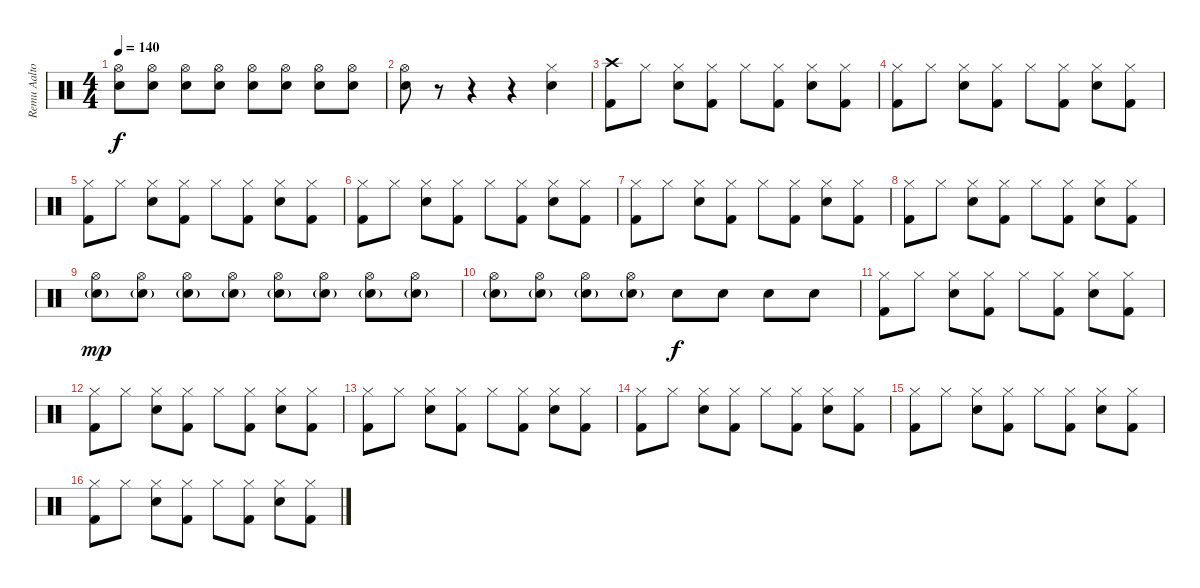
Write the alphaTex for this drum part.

\track ("Remu Aaltonen" "Remu Aalto") {instrument percussion}
\staff {score}
\articulation defaults
\ts (4 4)
\tempo 140
\clef neutral
\ks c
("Hi-Hat (open)" "Snare (hit) 2").8{dy f volume 5} ("Hi-Hat (open)" "Snare (hit) 2").8{volume 13} ("Hi-Hat (open)" "Snare (hit) 2").8 ("Hi-Hat (open)" "Snare (hit) 2").8 ("Hi-Hat (open)" "Snare (hit) 2").8 ("Hi-Hat (open)" "Snare (hit) 2").8 ("Hi-Hat (open)" "Snare (hit) 2").8 ("Hi-Hat (open)" "Snare (hit) 2").8 |
("Hi-Hat (open)" "Snare (hit) 2").8 r.8 r.4 r.4 ("Hi-Hat (closed)" "Snare (hit) 2").4 |
("Crash high (hit)" "Kick (hit) 2").8 "Hi-Hat (closed)".8 ("Hi-Hat (closed)" "Snare (hit) 2").8 ("Hi-Hat (closed)" "Kick (hit) 2").8 "Hi-Hat (closed)".8 ("Hi-Hat (closed)" "Kick (hit) 2").8 ("Hi-Hat (closed)" "Snare (hit) 2").8 ("Hi-Hat (closed)" "Kick (hit) 2").8 |
("Hi-Hat (closed)" "Kick (hit) 2").8 "Hi-Hat (closed)".8 ("Hi-Hat (closed)" "Snare (hit) 2").8 ("Hi-Hat (closed)" "Kick (hit) 2").8 "Hi-Hat (closed)".8 ("Hi-Hat (closed)" "Kick (hit) 2").8 ("Hi-Hat (closed)" "Snare (hit) 2").8 ("Hi-Hat (closed)" "Kick (hit) 2").8 |
("Hi-Hat (closed)" "Kick (hit) 2").8 "Hi-Hat (closed)".8 ("Hi-Hat (closed)" "Snare (hit) 2").8 ("Hi-Hat (closed)" "Kick (hit) 2").8 "Hi-Hat (closed)".8 ("Hi-Hat (closed)" "Kick (hit) 2").8 ("Hi-Hat (closed)" "Snare (hit) 2").8 ("Hi-Hat (closed)" "Kick (hit) 2").8 |
("Hi-Hat (closed)" "Kick (hit) 2").8 "Hi-Hat (closed)".8 ("Hi-Hat (closed)" "Snare (hit) 2").8 ("Hi-Hat (closed)" "Kick (hit) 2").8 "Hi-Hat (closed)".8 ("Hi-Hat (closed)" "Kick (hit) 2").8 ("Hi-Hat (closed)" "Snare (hit) 2").8 ("Hi-Hat (closed)" "Kick (hit) 2").8 |
("Hi-Hat (closed)" "Kick (hit) 2").8 "Hi-Hat (closed)".8 ("Hi-Hat (closed)" "Snare (hit) 2").8 ("Hi-Hat (closed)" "Kick (hit) 2").8 "Hi-Hat (closed)".8 ("Hi-Hat (closed)" "Kick (hit) 2").8 ("Hi-Hat (closed)" "Snare (hit) 2").8 ("Hi-Hat (closed)" "Kick (hit) 2").8 |
("Hi-Hat (closed)" "Kick (hit) 2").8 "Hi-Hat (closed)".8 ("Hi-Hat (closed)" "Snare (hit) 2").8 ("Hi-Hat (closed)" "Kick (hit) 2").8 "Hi-Hat (closed)".8 ("Hi-Hat (closed)" "Kick (hit) 2").8 ("Hi-Hat (closed)" "Snare (hit) 2").8 ("Hi-Hat (closed)" "Kick (hit) 2").8 |
("Hi-Hat (open)" "Snare (hit) 2"{g}).8{dy mp} ("Hi-Hat (open)" "Snare (hit) 2"{g}).8 ("Hi-Hat (open)" "Snare (hit) 2"{g}).8 ("Hi-Hat (open)" "Snare (hit) 2"{g}).8 ("Hi-Hat (open)" "Snare (hit) 2"{g}).8 ("Hi-Hat (open)" "Snare (hit) 2"{g}).8 ("Hi-Hat (open)" "Snare (hit) 2"{g}).8 ("Hi-Hat (open)" "Snare (hit) 2"{g}).8 |
("Hi-Hat (open)" "Snare (hit) 2"{g}).8 ("Hi-Hat (open)" "Snare (hit) 2"{g}).8 ("Hi-Hat (open)" "Snare (hit) 2"{g}).8 ("Hi-Hat (open)" "Snare (hit) 2"{g}).8 "Snare (hit) 2".8{dy f} "Snare (hit) 2".8 "Snare (hit) 2".8 "Snare (hit) 2".8 |
("Hi-Hat (closed)" "Kick (hit) 2").8 "Hi-Hat (closed)".8 ("Hi-Hat (closed)" "Snare (hit) 2").8 ("Hi-Hat (closed)" "Kick (hit) 2").8 "Hi-Hat (closed)".8 ("Hi-Hat (closed)" "Kick (hit) 2").8 ("Hi-Hat (closed)" "Snare (hit) 2").8 ("Hi-Hat (closed)" "Kick (hit) 2").8 |
("Hi-Hat (closed)" "Kick (hit) 2").8 "Hi-Hat (closed)".8 ("Hi-Hat (closed)" "Snare (hit) 2").8 ("Hi-Hat (closed)" "Kick (hit) 2").8 "Hi-Hat (closed)".8 ("Hi-Hat (closed)" "Kick (hit) 2").8 ("Hi-Hat (closed)" "Snare (hit) 2").8 ("Hi-Hat (closed)" "Kick (hit) 2").8 |
("Hi-Hat (closed)" "Kick (hit) 2").8 "Hi-Hat (closed)".8 ("Hi-Hat (closed)" "Snare (hit) 2").8 ("Hi-Hat (closed)" "Kick (hit) 2").8 "Hi-Hat (closed)".8 ("Hi-Hat (closed)" "Kick (hit) 2").8 ("Hi-Hat (closed)" "Snare (hit) 2").8 ("Hi-Hat (closed)" "Kick (hit) 2").8 |
("Hi-Hat (closed)" "Kick (hit) 2").8 "Hi-Hat (closed)".8 ("Hi-Hat (closed)" "Snare (hit) 2").8 ("Hi-Hat (closed)" "Kick (hit) 2").8 "Hi-Hat (closed)".8 ("Hi-Hat (closed)" "Kick (hit) 2").8 ("Hi-Hat (closed)" "Snare (hit) 2").8 ("Hi-Hat (closed)" "Kick (hit) 2").8 |
("Hi-Hat (closed)" "Kick (hit) 2").8 "Hi-Hat (closed)".8 ("Hi-Hat (closed)" "Snare (hit) 2").8 ("Hi-Hat (closed)" "Kick (hit) 2").8 "Hi-Hat (closed)".8 ("Hi-Hat (closed)" "Kick (hit) 2").8 ("Hi-Hat (closed)" "Snare (hit) 2").8 ("Hi-Hat (closed)" "Kick (hit) 2").8 |
("Hi-Hat (closed)" "Kick (hit) 2").8 "Hi-Hat (closed)".8 ("Hi-Hat (closed)" "Snare (hit) 2").8 ("Hi-Hat (closed)" "Kick (hit) 2").8 "Hi-Hat (closed)".8 ("Hi-Hat (closed)" "Kick (hit) 2").8 ("Hi-Hat (closed)" "Snare (hit) 2").8 ("Hi-Hat (closed)" "Kick (hit) 2").8
